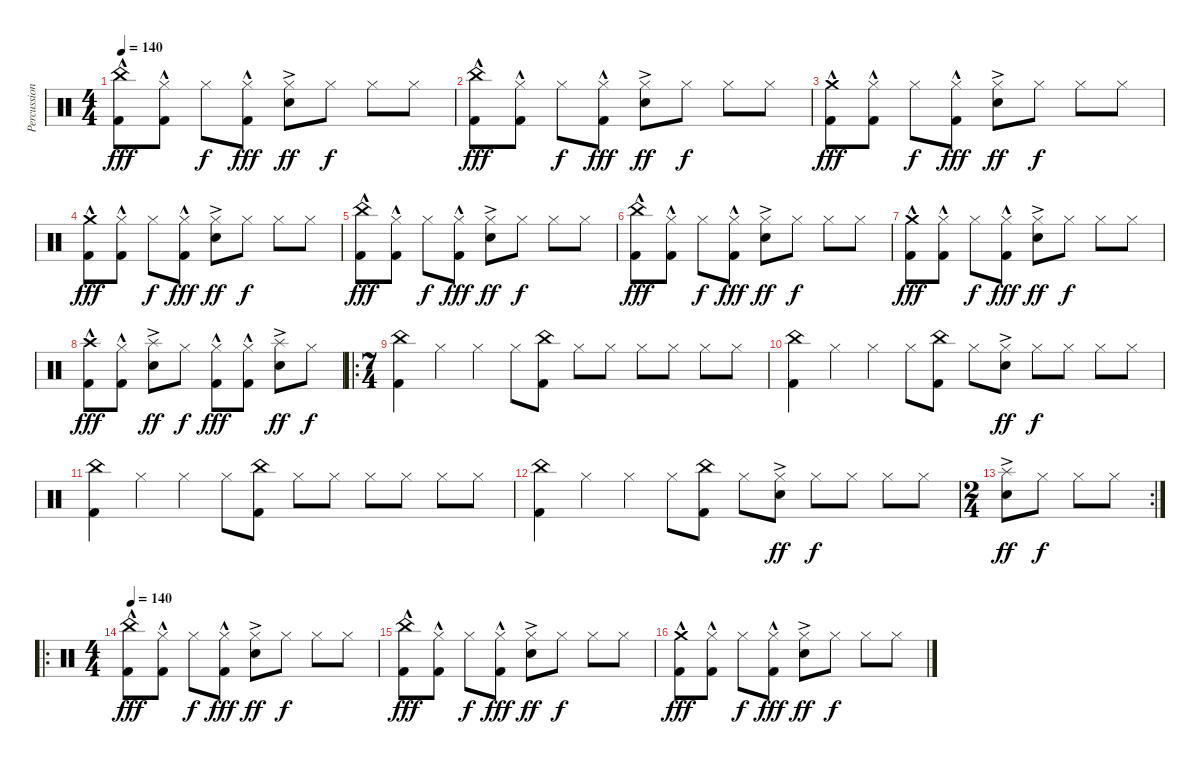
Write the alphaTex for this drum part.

\track ("Percussion" "Percussion") {instrument percussion}
\staff {score}
\articulation defaults
\ts (4 4)
\tempo 140
\clef neutral
\ks c
("China (hit)" "Kick (hit) 2"{hac}).8{dy fff} ("Hi-Hat (closed)" "Kick (hit) 2"{hac}).8 "Hi-Hat (closed)".8{dy f} ("Hi-Hat (closed)" "Kick (hit) 2"{hac}).8{dy fff} ("Hi-Hat (closed)" "Snare (hit) 2"{ac}).8{dy ff} "Hi-Hat (closed)".8{dy f} "Hi-Hat (closed)".8 "Hi-Hat (closed)".8 |
("China (hit)" "Kick (hit) 2"{hac}).8{dy fff} ("Hi-Hat (closed)" "Kick (hit) 2"{hac}).8 "Hi-Hat (closed)".8{dy f} ("Hi-Hat (closed)" "Kick (hit) 2"{hac}).8{dy fff} ("Hi-Hat (closed)" "Snare (hit) 2"{ac}).8{dy ff} "Hi-Hat (closed)".8{dy f} "Hi-Hat (closed)".8 "Hi-Hat (closed)".8 |
("Crash medium (hit)" "Kick (hit) 2"{hac}).8{dy fff} ("Hi-Hat (closed)" "Kick (hit) 2"{hac}).8 "Hi-Hat (closed)".8{dy f} ("Hi-Hat (closed)" "Kick (hit) 2"{hac}).8{dy fff} ("Hi-Hat (closed)" "Snare (hit) 2"{ac}).8{dy ff} "Hi-Hat (closed)".8{dy f} "Hi-Hat (closed)".8 "Hi-Hat (closed)".8 |
("Crash medium (hit)" "Kick (hit) 2"{hac}).8{dy fff} ("Hi-Hat (closed)" "Kick (hit) 2"{hac}).8 "Hi-Hat (closed)".8{dy f} ("Hi-Hat (closed)" "Kick (hit) 2"{hac}).8{dy fff} ("Hi-Hat (closed)" "Snare (hit) 2"{ac}).8{dy ff} "Hi-Hat (closed)".8{dy f} "Hi-Hat (closed)".8 "Hi-Hat (closed)".8 |
("China (hit)" "Kick (hit) 2"{hac}).8{dy fff} ("Hi-Hat (closed)" "Kick (hit) 2"{hac}).8 "Hi-Hat (closed)".8{dy f} ("Hi-Hat (closed)" "Kick (hit) 2"{hac}).8{dy fff} ("Hi-Hat (closed)" "Snare (hit) 2"{ac}).8{dy ff} "Hi-Hat (closed)".8{dy f} "Hi-Hat (closed)".8 "Hi-Hat (closed)".8 |
("China (hit)" "Kick (hit) 2"{hac}).8{dy fff} ("Hi-Hat (closed)" "Kick (hit) 2"{hac}).8 "Hi-Hat (closed)".8{dy f} ("Hi-Hat (closed)" "Kick (hit) 2"{hac}).8{dy fff} ("Hi-Hat (closed)" "Snare (hit) 2"{ac}).8{dy ff} "Hi-Hat (closed)".8{dy f} "Hi-Hat (closed)".8 "Hi-Hat (closed)".8 |
("Crash medium (hit)" "Kick (hit) 2"{hac}).8{dy fff} ("Hi-Hat (closed)" "Kick (hit) 2"{hac}).8 "Hi-Hat (closed)".8{dy f} ("Hi-Hat (closed)" "Kick (hit) 2"{hac}).8{dy fff} ("Hi-Hat (closed)" "Snare (hit) 2"{ac}).8{dy ff} "Hi-Hat (closed)".8{dy f} "Hi-Hat (closed)".8 "Hi-Hat (closed)".8 |
("Crash high (hit)" "Kick (hit) 2"{hac}).8{dy fff} ("Hi-Hat (closed)" "Kick (hit) 2"{hac}).8 ("Splash (hit)" "Snare (hit) 2"{ac}).8{dy ff} "Hi-Hat (closed)".8{dy f} ("Hi-Hat (closed)" "Kick (hit) 2"{hac}).8{dy fff} ("Hi-Hat (closed)" "Kick (hit) 2"{hac}).8 ("Splash (hit)" "Snare (hit) 2"{ac}).8{dy ff} "Hi-Hat (closed)".8{dy f} |
\ro
\ts (7 4)
("China (hit)" "Kick (hit) 2").4 "Hi-Hat (closed)".4 "Hi-Hat (closed)".4 "Hi-Hat (closed)".8 ("China (hit)" "Kick (hit) 2").8 "Hi-Hat (closed)".8 "Hi-Hat (closed)".8 "Hi-Hat (closed)".8 "Hi-Hat (closed)".8 "Hi-Hat (closed)".8 "Hi-Hat (closed)".8 |
("China (hit)" "Kick (hit) 2").4 "Hi-Hat (closed)".4 "Hi-Hat (closed)".4 "Hi-Hat (closed)".8 ("China (hit)" "Kick (hit) 2").8 "Hi-Hat (closed)".8 ("Hi-Hat (closed)" "Snare (hit) 2"{ac}).8{dy ff} "Hi-Hat (closed)".8{dy f} "Hi-Hat (closed)".8 "Hi-Hat (closed)".8 "Hi-Hat (closed)".8 |
("China (hit)" "Kick (hit) 2").4 "Hi-Hat (closed)".4 "Hi-Hat (closed)".4 "Hi-Hat (closed)".8 ("China (hit)" "Kick (hit) 2").8 "Hi-Hat (closed)".8 "Hi-Hat (closed)".8 "Hi-Hat (closed)".8 "Hi-Hat (closed)".8 "Hi-Hat (closed)".8 "Hi-Hat (closed)".8 |
("China (hit)" "Kick (hit) 2").4 "Hi-Hat (closed)".4 "Hi-Hat (closed)".4 "Hi-Hat (closed)".8 ("China (hit)" "Kick (hit) 2").8 "Hi-Hat (closed)".8 ("Hi-Hat (closed)" "Snare (hit) 2"{ac}).8{dy ff} "Hi-Hat (closed)".8{dy f} "Hi-Hat (closed)".8 "Hi-Hat (closed)".8 "Hi-Hat (closed)".8 |
\rc 2
\ts (2 4)
("Splash (hit)" "Snare (hit) 2"{ac}).8{dy ff} "Hi-Hat (closed)".8{dy f} "Hi-Hat (closed)".8 "Hi-Hat (closed)".8 |
\ro
\ts (4 4)
\tempo 140
("China (hit)" "Kick (hit) 2"{hac}).8{dy fff} ("Hi-Hat (closed)" "Kick (hit) 2"{hac}).8 "Hi-Hat (closed)".8{dy f} ("Hi-Hat (closed)" "Kick (hit) 2"{hac}).8{dy fff} ("Hi-Hat (closed)" "Snare (hit) 2"{ac}).8{dy ff} "Hi-Hat (closed)".8{dy f} "Hi-Hat (closed)".8 "Hi-Hat (closed)".8 |
("China (hit)" "Kick (hit) 2"{hac}).8{dy fff} ("Hi-Hat (closed)" "Kick (hit) 2"{hac}).8 "Hi-Hat (closed)".8{dy f} ("Hi-Hat (closed)" "Kick (hit) 2"{hac}).8{dy fff} ("Hi-Hat (closed)" "Snare (hit) 2"{ac}).8{dy ff} "Hi-Hat (closed)".8{dy f} "Hi-Hat (closed)".8 "Hi-Hat (closed)".8 |
("Crash medium (hit)" "Kick (hit) 2"{hac}).8{dy fff} ("Hi-Hat (closed)" "Kick (hit) 2"{hac}).8 "Hi-Hat (closed)".8{dy f} ("Hi-Hat (closed)" "Kick (hit) 2"{hac}).8{dy fff} ("Hi-Hat (closed)" "Snare (hit) 2"{ac}).8{dy ff} "Hi-Hat (closed)".8{dy f} "Hi-Hat (closed)".8 "Hi-Hat (closed)".8
